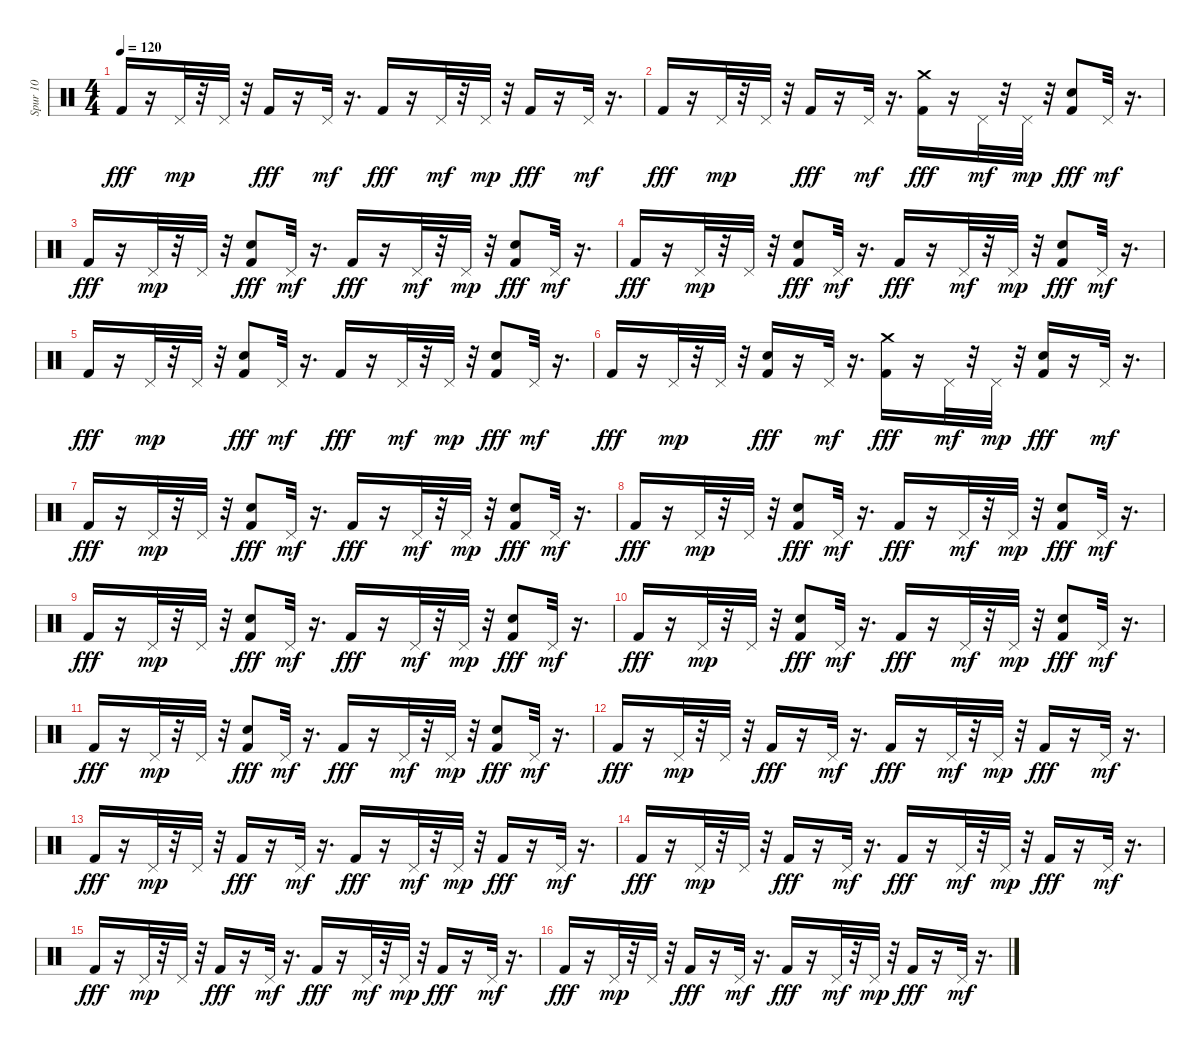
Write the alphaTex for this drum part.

\track ("Spur 10" "Spur 10") {instrument percussion}
\staff {score}
\articulation defaults
\ts (4 4)
\tempo 120
\clef neutral
\ks c "Kick (hit) 2".16{dy fff}
r.16 "Pedal Hi-Hat (hit)".32{dy mp} r.32 "Pedal Hi-Hat (hit)".32 r.32 "Kick (hit) 2".16{dy fff} r.16 "Pedal Hi-Hat (hit)".32{dy mf} r.16{d} "Kick (hit) 2".16{dy fff} r.16 "Pedal Hi-Hat (hit)".32{dy mf} r.32 "Pedal Hi-Hat (hit)".32{dy mp} r.32 "Kick (hit) 2".16{dy fff} r.16 "Pedal Hi-Hat (hit)".32{dy mf} r.16{d} |
"Kick (hit) 2".16{dy fff} r.16 "Pedal Hi-Hat (hit)".32{dy mp} r.32 "Pedal Hi-Hat (hit)".32 r.32 "Kick (hit) 2".16{dy fff} r.16 "Pedal Hi-Hat (hit)".32{dy mf} r.16{d} ("Kick (hit) 2" "Crash medium (hit)").16{dy fff} r.16 "Pedal Hi-Hat (hit)".32{dy mf} r.32 "Pedal Hi-Hat (hit)".32{dy mp} r.32 ("Electric Snare (hit)" "Kick (hit) 2").8{dy fff} "Pedal Hi-Hat (hit)".32{dy mf} r.16{d} |
"Kick (hit) 2".16{dy fff} r.16 "Pedal Hi-Hat (hit)".32{dy mp} r.32 "Pedal Hi-Hat (hit)".32 r.32 ("Electric Snare (hit)" "Kick (hit) 2").8{dy fff} "Pedal Hi-Hat (hit)".32{dy mf} r.16{d} "Kick (hit) 2".16{dy fff} r.16 "Pedal Hi-Hat (hit)".32{dy mf} r.32 "Pedal Hi-Hat (hit)".32{dy mp} r.32 ("Electric Snare (hit)" "Kick (hit) 2").8{dy fff} "Pedal Hi-Hat (hit)".32{dy mf} r.16{d} |
"Kick (hit) 2".16{dy fff} r.16 "Pedal Hi-Hat (hit)".32{dy mp} r.32 "Pedal Hi-Hat (hit)".32 r.32 ("Electric Snare (hit)" "Kick (hit) 2").8{dy fff} "Pedal Hi-Hat (hit)".32{dy mf} r.16{d} "Kick (hit) 2".16{dy fff} r.16 "Pedal Hi-Hat (hit)".32{dy mf} r.32 "Pedal Hi-Hat (hit)".32{dy mp} r.32 ("Electric Snare (hit)" "Kick (hit) 2").8{dy fff} "Pedal Hi-Hat (hit)".32{dy mf} r.16{d} |
"Kick (hit) 2".16{dy fff} r.16 "Pedal Hi-Hat (hit)".32{dy mp} r.32 "Pedal Hi-Hat (hit)".32 r.32 ("Electric Snare (hit)" "Kick (hit) 2").8{dy fff} "Pedal Hi-Hat (hit)".32{dy mf} r.16{d} "Kick (hit) 2".16{dy fff} r.16 "Pedal Hi-Hat (hit)".32{dy mf} r.32 "Pedal Hi-Hat (hit)".32{dy mp} r.32 ("Electric Snare (hit)" "Kick (hit) 2").8{dy fff} "Pedal Hi-Hat (hit)".32{dy mf} r.16{d} |
"Kick (hit) 2".16{dy fff} r.16 "Pedal Hi-Hat (hit)".32{dy mp} r.32 "Pedal Hi-Hat (hit)".32 r.32 ("Electric Snare (hit)" "Kick (hit) 2").16{dy fff} r.16 "Pedal Hi-Hat (hit)".32{dy mf} r.16{d} ("Kick (hit) 2" "Crash medium (hit)").16{dy fff} r.16 "Pedal Hi-Hat (hit)".32{dy mf} r.32 "Pedal Hi-Hat (hit)".32{dy mp} r.32 ("Electric Snare (hit)" "Kick (hit) 2").16{dy fff} r.16 "Pedal Hi-Hat (hit)".32{dy mf} r.16{d} |
"Kick (hit) 2".16{dy fff} r.16 "Pedal Hi-Hat (hit)".32{dy mp} r.32 "Pedal Hi-Hat (hit)".32 r.32 ("Electric Snare (hit)" "Kick (hit) 2").8{dy fff} "Pedal Hi-Hat (hit)".32{dy mf} r.16{d} "Kick (hit) 2".16{dy fff} r.16 "Pedal Hi-Hat (hit)".32{dy mf} r.32 "Pedal Hi-Hat (hit)".32{dy mp} r.32 ("Electric Snare (hit)" "Kick (hit) 2").8{dy fff} "Pedal Hi-Hat (hit)".32{dy mf} r.16{d} |
"Kick (hit) 2".16{dy fff} r.16 "Pedal Hi-Hat (hit)".32{dy mp} r.32 "Pedal Hi-Hat (hit)".32 r.32 ("Electric Snare (hit)" "Kick (hit) 2").8{dy fff} "Pedal Hi-Hat (hit)".32{dy mf} r.16{d} "Kick (hit) 2".16{dy fff} r.16 "Pedal Hi-Hat (hit)".32{dy mf} r.32 "Pedal Hi-Hat (hit)".32{dy mp} r.32 ("Electric Snare (hit)" "Kick (hit) 2").8{dy fff} "Pedal Hi-Hat (hit)".32{dy mf} r.16{d} |
"Kick (hit) 2".16{dy fff} r.16 "Pedal Hi-Hat (hit)".32{dy mp} r.32 "Pedal Hi-Hat (hit)".32 r.32 ("Electric Snare (hit)" "Kick (hit) 2").8{dy fff} "Pedal Hi-Hat (hit)".32{dy mf} r.16{d} "Kick (hit) 2".16{dy fff} r.16 "Pedal Hi-Hat (hit)".32{dy mf} r.32 "Pedal Hi-Hat (hit)".32{dy mp} r.32 ("Electric Snare (hit)" "Kick (hit) 2").8{dy fff} "Pedal Hi-Hat (hit)".32{dy mf} r.16{d} |
"Kick (hit) 2".16{dy fff} r.16 "Pedal Hi-Hat (hit)".32{dy mp} r.32 "Pedal Hi-Hat (hit)".32 r.32 ("Electric Snare (hit)" "Kick (hit) 2").8{dy fff} "Pedal Hi-Hat (hit)".32{dy mf} r.16{d} "Kick (hit) 2".16{dy fff} r.16 "Pedal Hi-Hat (hit)".32{dy mf} r.32 "Pedal Hi-Hat (hit)".32{dy mp} r.32 ("Electric Snare (hit)" "Kick (hit) 2").8{dy fff} "Pedal Hi-Hat (hit)".32{dy mf} r.16{d} |
"Kick (hit) 2".16{dy fff} r.16 "Pedal Hi-Hat (hit)".32{dy mp} r.32 "Pedal Hi-Hat (hit)".32 r.32 ("Electric Snare (hit)" "Kick (hit) 2").8{dy fff} "Pedal Hi-Hat (hit)".32{dy mf} r.16{d} "Kick (hit) 2".16{dy fff} r.16 "Pedal Hi-Hat (hit)".32{dy mf} r.32 "Pedal Hi-Hat (hit)".32{dy mp} r.32 ("Electric Snare (hit)" "Kick (hit) 2").8{dy fff} "Pedal Hi-Hat (hit)".32{dy mf} r.16{d} |
"Kick (hit) 2".16{dy fff} r.16 "Pedal Hi-Hat (hit)".32{dy mp} r.32 "Pedal Hi-Hat (hit)".32 r.32 "Kick (hit) 2".16{dy fff} r.16 "Pedal Hi-Hat (hit)".32{dy mf} r.16{d} "Kick (hit) 2".16{dy fff} r.16 "Pedal Hi-Hat (hit)".32{dy mf} r.32 "Pedal Hi-Hat (hit)".32{dy mp} r.32 "Kick (hit) 2".16{dy fff} r.16 "Pedal Hi-Hat (hit)".32{dy mf} r.16{d} |
"Kick (hit) 2".16{dy fff} r.16 "Pedal Hi-Hat (hit)".32{dy mp} r.32 "Pedal Hi-Hat (hit)".32 r.32 "Kick (hit) 2".16{dy fff} r.16 "Pedal Hi-Hat (hit)".32{dy mf} r.16{d} "Kick (hit) 2".16{dy fff} r.16 "Pedal Hi-Hat (hit)".32{dy mf} r.32 "Pedal Hi-Hat (hit)".32{dy mp} r.32 "Kick (hit) 2".16{dy fff} r.16 "Pedal Hi-Hat (hit)".32{dy mf} r.16{d} |
"Kick (hit) 2".16{dy fff} r.16 "Pedal Hi-Hat (hit)".32{dy mp} r.32 "Pedal Hi-Hat (hit)".32 r.32 "Kick (hit) 2".16{dy fff} r.16 "Pedal Hi-Hat (hit)".32{dy mf} r.16{d} "Kick (hit) 2".16{dy fff} r.16 "Pedal Hi-Hat (hit)".32{dy mf} r.32 "Pedal Hi-Hat (hit)".32{dy mp} r.32 "Kick (hit) 2".16{dy fff} r.16 "Pedal Hi-Hat (hit)".32{dy mf} r.16{d} |
"Kick (hit) 2".16{dy fff} r.16 "Pedal Hi-Hat (hit)".32{dy mp} r.32 "Pedal Hi-Hat (hit)".32 r.32 "Kick (hit) 2".16{dy fff} r.16 "Pedal Hi-Hat (hit)".32{dy mf} r.16{d} "Kick (hit) 2".16{dy fff} r.16 "Pedal Hi-Hat (hit)".32{dy mf} r.32 "Pedal Hi-Hat (hit)".32{dy mp} r.32 "Kick (hit) 2".16{dy fff} r.16 "Pedal Hi-Hat (hit)".32{dy mf} r.16{d} |
"Kick (hit) 2".16{dy fff} r.16 "Pedal Hi-Hat (hit)".32{dy mp} r.32 "Pedal Hi-Hat (hit)".32 r.32 "Kick (hit) 2".16{dy fff} r.16 "Pedal Hi-Hat (hit)".32{dy mf} r.16{d} "Kick (hit) 2".16{dy fff} r.16 "Pedal Hi-Hat (hit)".32{dy mf} r.32 "Pedal Hi-Hat (hit)".32{dy mp} r.32 "Kick (hit) 2".16{dy fff} r.16 "Pedal Hi-Hat (hit)".32{dy mf} r.16{d}
